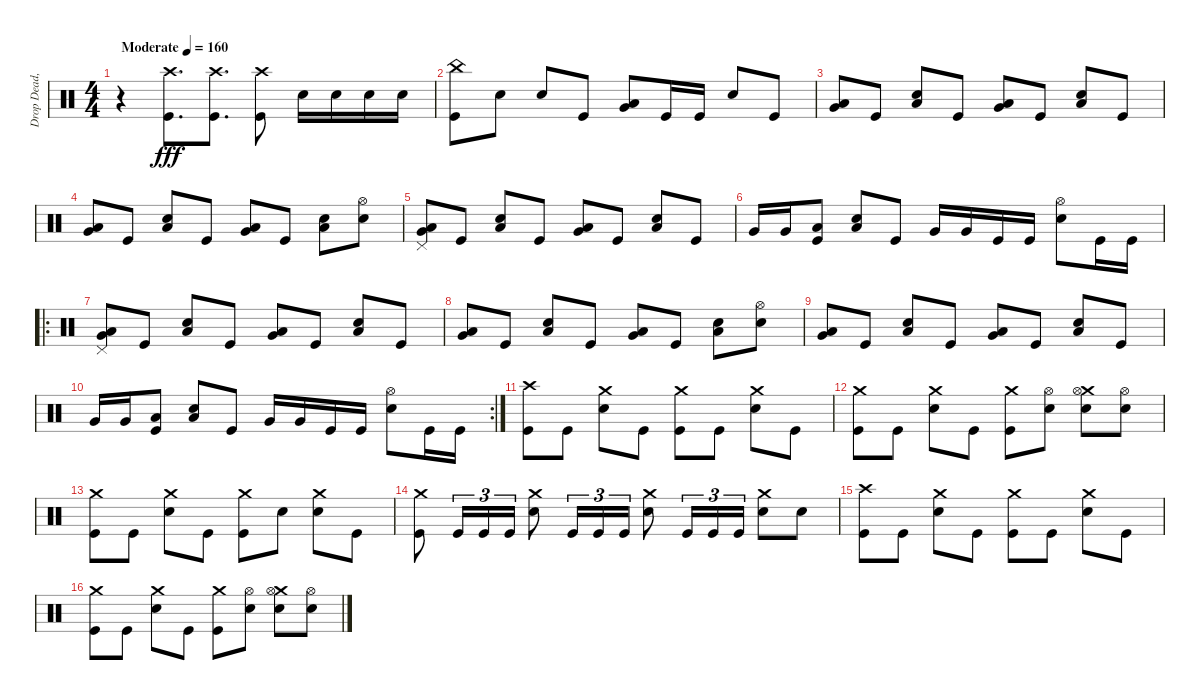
\track ("Drop Dead, Johnny" "Drop Dead,") {instrument percussion}
\staff {score}
\articulation defaults
\ts (4 4)
\tempo (160 "Moderate")
\clef neutral
\ks c
r.4{dy fff} ("Crash high (hit)" "Kick (hit)").8{d} ("Crash high (hit)" "Kick (hit)").8{d} ("Crash high (hit)" "Kick (hit)").8 "Electric Snare (hit)".16 "Electric Snare (hit)".16 "Electric Snare (hit)".16 "Electric Snare (hit)".16 |
("China (hit)" "Kick (hit)").8 "Electric Snare (hit)".8 "Electric Snare (hit)".8 "Kick (hit)".8 ("Very Low Tom (hit)" "Low Floor Tom (hit)").8 "Kick (hit)".16 "Kick (hit)".16 "Electric Snare (hit)".8 "Kick (hit)".8 |
("Very Low Tom (hit)" "Low Floor Tom (hit)").8 "Kick (hit)".8 ("Low Floor Tom (hit)" "Electric Snare (hit)").8 "Kick (hit)".8 ("Very Low Tom (hit)" "Low Floor Tom (hit)").8 "Kick (hit)".8 ("Low Floor Tom (hit)" "Electric Snare (hit)").8 "Kick (hit)".8 |
("Very Low Tom (hit)" "Low Floor Tom (hit)").8 "Kick (hit)".8 ("Low Floor Tom (hit)" "Electric Snare (hit)").8 "Kick (hit)".8 ("Very Low Tom (hit)" "Low Floor Tom (hit)").8 "Kick (hit)".8 ("Low Floor Tom (hit)" "Electric Snare (hit)").8 ("Hi-Hat (open)" "Electric Snare (hit)").8 |
("Pedal Hi-Hat (hit)" "Very Low Tom (hit)" "Low Floor Tom (hit)").8 "Kick (hit)".8 ("Low Floor Tom (hit)" "Electric Snare (hit)").8 "Kick (hit)".8 ("Very Low Tom (hit)" "Low Floor Tom (hit)").8 "Kick (hit)".8 ("Low Floor Tom (hit)" "Electric Snare (hit)").8 "Kick (hit)".8 |
"Very Low Tom (hit)".16 "Very Low Tom (hit)".16 ("Low Floor Tom (hit)" "Kick (hit)").8 ("Low Floor Tom (hit)" "Electric Snare (hit)").8 "Kick (hit)".8 "Very Low Tom (hit)".16 "Very Low Tom (hit)".16 "Kick (hit)".16 "Kick (hit)".16 ("Hi-Hat (open)" "Electric Snare (hit)").8 "Kick (hit)".16 "Kick (hit)".16 |
\ro
("Pedal Hi-Hat (hit)" "Very Low Tom (hit)" "Low Floor Tom (hit)").8 "Kick (hit)".8 ("Low Floor Tom (hit)" "Electric Snare (hit)").8 "Kick (hit)".8 ("Very Low Tom (hit)" "Low Floor Tom (hit)").8 "Kick (hit)".8 ("Low Floor Tom (hit)" "Electric Snare (hit)").8 "Kick (hit)".8 |
("Very Low Tom (hit)" "Low Floor Tom (hit)").8 "Kick (hit)".8 ("Low Floor Tom (hit)" "Electric Snare (hit)").8 "Kick (hit)".8 ("Very Low Tom (hit)" "Low Floor Tom (hit)").8 "Kick (hit)".8 ("Low Floor Tom (hit)" "Electric Snare (hit)").8 ("Hi-Hat (open)" "Electric Snare (hit)").8 |
("Very Low Tom (hit)" "Low Floor Tom (hit)").8 "Kick (hit)".8 ("Low Floor Tom (hit)" "Electric Snare (hit)").8 "Kick (hit)".8 ("Very Low Tom (hit)" "Low Floor Tom (hit)").8 "Kick (hit)".8 ("Low Floor Tom (hit)" "Electric Snare (hit)").8 "Kick (hit)".8 |
\rc 2 "Very Low Tom (hit)".16 "Very Low Tom (hit)".16
("Low Floor Tom (hit)" "Kick (hit)").8 ("Low Floor Tom (hit)" "Electric Snare (hit)").8 "Kick (hit)".8 "Very Low Tom (hit)".16 "Very Low Tom (hit)".16 "Kick (hit)".16 "Kick (hit)".16 ("Hi-Hat (open)" "Electric Snare (hit)").8 "Kick (hit)".16 "Kick (hit)".16 |
("Crash high (hit)" "Kick (hit)").8 "Kick (hit)".8 ("Crash medium (hit)" "Electric Snare (hit)").8 "Kick (hit)".8 ("Crash medium (hit)" "Kick (hit)").8 "Kick (hit)".8 ("Crash medium (hit)" "Electric Snare (hit)").8 "Kick (hit)".8 |
("Crash medium (hit)" "Kick (hit)").8 "Kick (hit)".8 ("Crash medium (hit)" "Electric Snare (hit)").8 "Kick (hit)".8 ("Crash medium (hit)" "Kick (hit)").8 ("Hi-Hat (open)" "Electric Snare (hit)").8 ("Crash medium (hit)" "Hi-Hat (open)" "Electric Snare (hit)").8 ("Hi-Hat (open)" "Electric Snare (hit)").8 |
("Crash medium (hit)" "Kick (hit)").8 "Kick (hit)".8 ("Crash medium (hit)" "Electric Snare (hit)").8 "Kick (hit)".8 ("Crash medium (hit)" "Kick (hit)").8 "Electric Snare (hit)".8 ("Crash medium (hit)" "Electric Snare (hit)").8 "Kick (hit)".8 |
("Crash medium (hit)" "Kick (hit)").8 "Kick (hit)".16{tu (3 2)} "Kick (hit)".16{tu (3 2)} "Kick (hit)".16{tu (3 2)} ("Crash medium (hit)" "Electric Snare (hit)").8 "Kick (hit)".16{tu (3 2)} "Kick (hit)".16{tu (3 2)} "Kick (hit)".16{tu (3 2)} ("Crash medium (hit)" "Electric Snare (hit)").8 "Kick (hit)".16{tu (3 2)} "Kick (hit)".16{tu (3 2)} "Kick (hit)".16{tu (3 2)} ("Crash medium (hit)" "Electric Snare (hit)").8 "Electric Snare (hit)".8 |
("Crash high (hit)" "Kick (hit)").8 "Kick (hit)".8 ("Crash medium (hit)" "Electric Snare (hit)").8 "Kick (hit)".8 ("Crash medium (hit)" "Kick (hit)").8 "Kick (hit)".8 ("Crash medium (hit)" "Electric Snare (hit)").8 "Kick (hit)".8 |
("Crash medium (hit)" "Kick (hit)").8 "Kick (hit)".8 ("Crash medium (hit)" "Electric Snare (hit)").8 "Kick (hit)".8 ("Crash medium (hit)" "Kick (hit)").8 ("Hi-Hat (open)" "Electric Snare (hit)").8 ("Crash medium (hit)" "Hi-Hat (open)" "Electric Snare (hit)").8 ("Hi-Hat (open)" "Electric Snare (hit)").8
